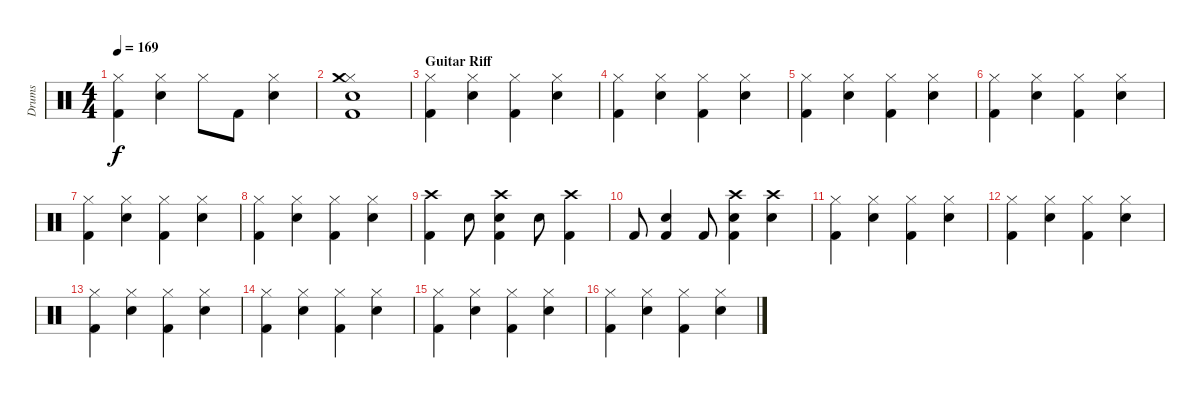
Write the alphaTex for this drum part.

\track ("Drums" "Drums") {instrument percussion}
\staff {score}
\articulation defaults
\ts (4 4)
\tempo 169
\clef neutral
\ks c
("Hi-Hat (closed)" "Kick (hit) 2").4{dy f} ("Hi-Hat (closed)" "Snare (hit) 2").4 "Hi-Hat (closed)".8 "Kick (hit) 2".8 ("Hi-Hat (closed)" "Snare (hit) 2").4 |
("Hi-Hat (closed)" "Snare (hit) 2" "Kick (hit) 2" "Crash medium (hit)").1 |
\section ("" "Guitar Riff")
("Hi-Hat (closed)" "Kick (hit) 2").4 ("Hi-Hat (closed)" "Snare (hit) 2").4 ("Hi-Hat (closed)" "Kick (hit) 2").4 ("Hi-Hat (closed)" "Snare (hit) 2").4 |
("Hi-Hat (closed)" "Kick (hit) 2").4 ("Hi-Hat (closed)" "Snare (hit) 2").4 ("Hi-Hat (closed)" "Kick (hit) 2").4 ("Hi-Hat (closed)" "Snare (hit) 2").4 |
("Hi-Hat (closed)" "Kick (hit) 2").4 ("Hi-Hat (closed)" "Snare (hit) 2").4 ("Hi-Hat (closed)" "Kick (hit) 2").4 ("Hi-Hat (closed)" "Snare (hit) 2").4 |
("Hi-Hat (closed)" "Kick (hit) 2").4 ("Hi-Hat (closed)" "Snare (hit) 2").4 ("Hi-Hat (closed)" "Kick (hit) 2").4 ("Hi-Hat (closed)" "Snare (hit) 2").4 |
("Hi-Hat (closed)" "Kick (hit) 2").4 ("Hi-Hat (closed)" "Snare (hit) 2").4 ("Hi-Hat (closed)" "Kick (hit) 2").4 ("Hi-Hat (closed)" "Snare (hit) 2").4 |
("Hi-Hat (closed)" "Kick (hit) 2").4 ("Hi-Hat (closed)" "Snare (hit) 2").4 ("Hi-Hat (closed)" "Kick (hit) 2").4 ("Hi-Hat (closed)" "Snare (hit) 2").4 |
("Crash high (hit)" "Kick (hit) 2").4 "Snare (hit) 2".8 ("Crash high (hit)" "Snare (hit) 2" "Kick (hit) 2").4 "Snare (hit) 2".8 ("Crash high (hit)" "Kick (hit) 2").4 |
"Kick (hit) 2".8 ("Snare (hit) 2" "Kick (hit) 2").4 "Kick (hit) 2".8 ("Kick (hit) 2" "Crash high (hit)" "Snare (hit) 2").4 ("Crash high (hit)" "Snare (hit) 2").4 |
("Hi-Hat (closed)" "Kick (hit) 2").4 ("Hi-Hat (closed)" "Snare (hit) 2").4 ("Hi-Hat (closed)" "Kick (hit) 2").4 ("Hi-Hat (closed)" "Snare (hit) 2").4 |
("Hi-Hat (closed)" "Kick (hit) 2").4 ("Hi-Hat (closed)" "Snare (hit) 2").4 ("Hi-Hat (closed)" "Kick (hit) 2").4 ("Hi-Hat (closed)" "Snare (hit) 2").4 |
("Hi-Hat (closed)" "Kick (hit) 2").4 ("Hi-Hat (closed)" "Snare (hit) 2").4 ("Hi-Hat (closed)" "Kick (hit) 2").4 ("Hi-Hat (closed)" "Snare (hit) 2").4 |
("Hi-Hat (closed)" "Kick (hit) 2").4 ("Hi-Hat (closed)" "Snare (hit) 2").4 ("Hi-Hat (closed)" "Kick (hit) 2").4 ("Hi-Hat (closed)" "Snare (hit) 2").4 |
("Hi-Hat (closed)" "Kick (hit) 2").4 ("Hi-Hat (closed)" "Snare (hit) 2").4 ("Hi-Hat (closed)" "Kick (hit) 2").4 ("Hi-Hat (closed)" "Snare (hit) 2").4 |
("Hi-Hat (closed)" "Kick (hit) 2").4 ("Hi-Hat (closed)" "Snare (hit) 2").4 ("Hi-Hat (closed)" "Kick (hit) 2").4 ("Hi-Hat (closed)" "Snare (hit) 2").4
